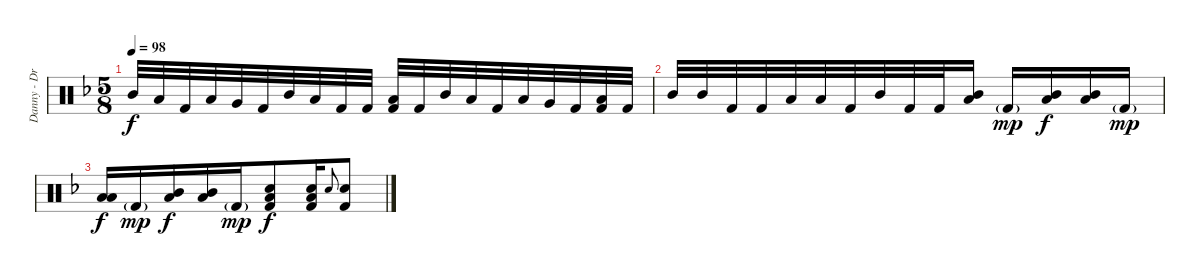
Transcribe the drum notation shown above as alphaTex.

\track ("Danny - Drums" "Danny - Dr") {instrument percussion}
\staff {score}
\articulation defaults
\ts (5 8)
\tempo 98
\clef neutral
\ks dminor "Mid Tom (hit)".32{dy f} "Low Tom (hit)".32 "Kick (hit) 2".32 "Low Tom (hit)".32{beam merge} "Very Low Tom (hit)".32 "Kick (hit) 2".32 "Mid Tom (hit)".32 "Low Tom (hit)".32{beam merge} "Kick (hit) 2".32 "Kick (hit) 2".32{beam split}
("Low Tom (hit)" "Kick (hit) 2").32 "Kick (hit) 2".32{beam merge} "Mid Tom (hit)".32 "Low Tom (hit)".32 "Kick (hit) 2".32 "Low Tom (hit)".32{beam merge} "Very Low Tom (hit)".32 "Kick (hit) 2".32 ("Low Tom (hit)" "Kick (hit) 2").32 "Kick (hit) 2".32 |
"Mid Tom (hit)".32 "Mid Tom (hit)".32 "Kick (hit) 2".32 "Kick (hit) 2".32{beam merge} "Low Tom (hit)".32 "Low Tom (hit)".32 "Kick (hit) 2".32 "Mid Tom (hit)".32{beam merge} "Kick (hit) 2".32 "Kick (hit) 2".32 ("Mid Tom (hit)" "Low Tom (hit)").16 "Kick (hit) 2"{g}.16{dy mp beam merge} ("Mid Tom (hit)" "Low Tom (hit)").16{dy f beam merge} ("Mid Tom (hit)" "Low Tom (hit)").16 "Kick (hit) 2"{g}.16{dy mp} |
("Low Tom (hit)" "Low Tom (hit)").16{dy f} "Kick (hit) 2"{g}.16{dy mp beam merge} ("Mid Tom (hit)" "Low Tom (hit)").16{dy f} ("Mid Tom (hit)" "Low Tom (hit)").16 "Kick (hit) 2"{g}.16{dy mp} ("Electric Snare (hit)" "Low Tom (hit)" "Kick (hit) 2").8{dy f beam merge} ("Electric Snare (hit)" "Low Tom (hit)" "Kick (hit) 2").16 "Electric Snare (hit)".8{gr onbeat beam merge} ("Electric Snare (hit)" "Kick (hit) 2").8
